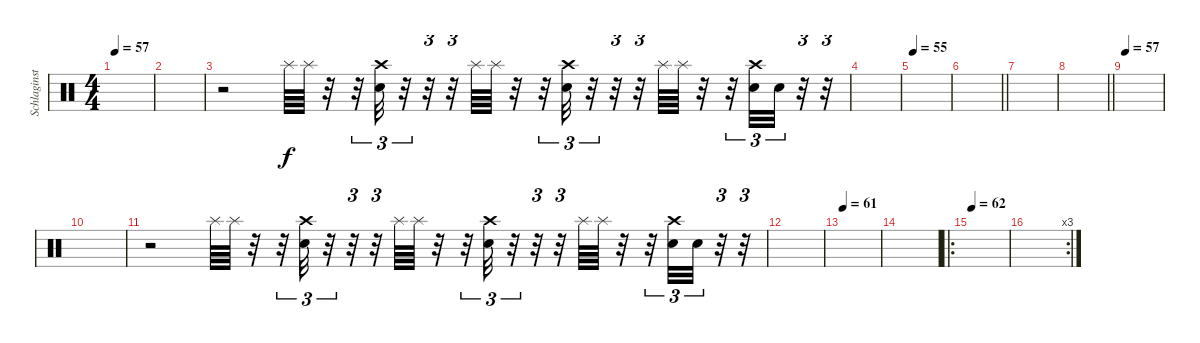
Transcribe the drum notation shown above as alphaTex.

\track ("Schlaginstrumente - Auswahl" "Schlaginst") {instrument percussion}
\staff {score}
\articulation defaults
\ts (4 4)
\tempo 57
\clef neutral
\ks c
|
|
r.2 "Splash (hit)".64 "Splash (hit)".64 r.32 r.32{tu (3 2)} ("Snare (hit) 2" "Crash high (hit)").32{tu (3 2)} r.32{tu (3 2)} r.32{tu (3 2)} r.32{tu (3 2)} "Splash (hit)".64 "Splash (hit)".64 r.32 r.32{tu (3 2)} ("Snare (hit) 2" "Crash high (hit)").32{tu (3 2)} r.32{tu (3 2)} r.32{tu (3 2)} r.32{tu (3 2)} "Splash (hit)".64 "Splash (hit)".64 r.32 r.32{tu (3 2)} ("Snare (hit) 2" "Crash high (hit)").32{tu (3 2)} "Snare (hit) 2".32{tu (3 2)} r.32{tu (3 2)} r.32{tu (3 2)} |
|
\tempo 55
|
\barLineRight lightlight
|
|
\barLineRight lightlight
|
\tempo 57
|
|
r.2 "Splash (hit)".64 "Splash (hit)".64 r.32 r.32{tu (3 2)} ("Snare (hit) 2" "Crash high (hit)").32{tu (3 2)} r.32{tu (3 2)} r.32{tu (3 2)} r.32{tu (3 2)} "Splash (hit)".64 "Splash (hit)".64 r.32 r.32{tu (3 2)} ("Snare (hit) 2" "Crash high (hit)").32{tu (3 2)} r.32{tu (3 2)} r.32{tu (3 2)} r.32{tu (3 2)} "Splash (hit)".64 "Splash (hit)".64 r.32 r.32{tu (3 2)} ("Snare (hit) 2" "Crash high (hit)").32{tu (3 2)} "Snare (hit) 2".32{tu (3 2)} r.32{tu (3 2)} r.32{tu (3 2)} |
|
\tempo 61
|
|
\ro
\tempo 62
|
\rc 3
